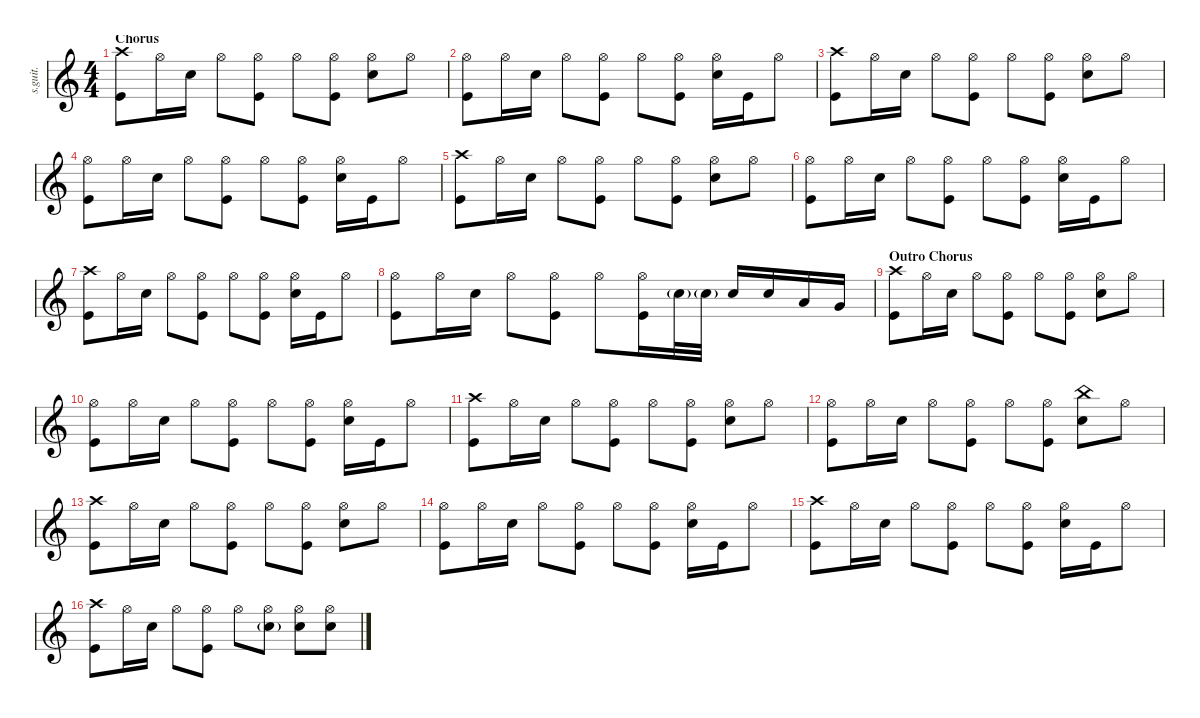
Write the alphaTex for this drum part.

\defaultSystemsLayout 4
\hideDynamics
\bracketExtendMode nobrackets
\track ("Rob Bourdon" "s.guit.") {instrument percussion}
\staff {score}
\articulation defaults
\ts (4 4)
\section ("" "Chorus")
\tempo (110 hide)
\clef g2
\ks c
("Crash high (hit)" "Kick (hit)").8{dy f} "Hi-Hat (open)".16 "Snare (hit) 2".16 "Hi-Hat (open)".8 ("Hi-Hat (open)" "Kick (hit)").8 "Hi-Hat (open)".8 ("Hi-Hat (open)" "Kick (hit)").8 ("Hi-Hat (open)" "Snare (hit) 2").8 "Hi-Hat (open)".8 |
("Hi-Hat (open)" "Kick (hit)").8 "Hi-Hat (open)".16 "Snare (hit) 2".16 "Hi-Hat (open)".8 ("Hi-Hat (open)" "Kick (hit)").8 "Hi-Hat (open)".8 ("Hi-Hat (open)" "Kick (hit)").8 ("Hi-Hat (open)" "Snare (hit) 2").16 "Kick (hit)".16 "Hi-Hat (open)".8 |
("Crash high (hit)" "Kick (hit)").8 "Hi-Hat (open)".16 "Snare (hit) 2".16 "Hi-Hat (open)".8 ("Hi-Hat (open)" "Kick (hit)").8 "Hi-Hat (open)".8 ("Hi-Hat (open)" "Kick (hit)").8 ("Hi-Hat (open)" "Snare (hit) 2").8 "Hi-Hat (open)".8 |
("Hi-Hat (open)" "Kick (hit)").8 "Hi-Hat (open)".16 "Snare (hit) 2".16 "Hi-Hat (open)".8 ("Hi-Hat (open)" "Kick (hit)").8 "Hi-Hat (open)".8 ("Hi-Hat (open)" "Kick (hit)").8 ("Hi-Hat (open)" "Snare (hit) 2").16 "Kick (hit)".16 "Hi-Hat (open)".8 |
("Crash high (hit)" "Kick (hit)").8 "Hi-Hat (open)".16 "Snare (hit) 2".16 "Hi-Hat (open)".8 ("Hi-Hat (open)" "Kick (hit)").8 "Hi-Hat (open)".8 ("Hi-Hat (open)" "Kick (hit)").8 ("Hi-Hat (open)" "Snare (hit) 2").8 "Hi-Hat (open)".8 |
("Hi-Hat (open)" "Kick (hit)").8 "Hi-Hat (open)".16 "Snare (hit) 2".16 "Hi-Hat (open)".8 ("Hi-Hat (open)" "Kick (hit)").8 "Hi-Hat (open)".8 ("Hi-Hat (open)" "Kick (hit)").8 ("Hi-Hat (open)" "Snare (hit) 2").16 "Kick (hit)".16 "Hi-Hat (open)".8 |
("Crash high (hit)" "Kick (hit)").8 "Hi-Hat (open)".16 "Snare (hit) 2".16 "Hi-Hat (open)".8 ("Hi-Hat (open)" "Kick (hit)").8 "Hi-Hat (open)".8 ("Hi-Hat (open)" "Kick (hit)").8 ("Hi-Hat (open)" "Snare (hit) 2").16 "Kick (hit)".16 "Hi-Hat (open)".8 |
("Hi-Hat (open)" "Kick (hit)").8 "Hi-Hat (open)".16 "Snare (hit) 2".16 "Hi-Hat (open)".8 ("Hi-Hat (open)" "Kick (hit)").8 "Hi-Hat (open)".8 ("Hi-Hat (open)" "Kick (hit)").16 "Snare (hit) 2"{g}.32{dy ppp} "Snare (hit) 2"{g}.32 "Snare (hit) 2".16{dy f} "Snare (hit) 2".16 "Low Tom (hit)".16 "Very Low Tom (hit)".16 |
\section ("" "Outro Chorus")
("Crash high (hit)" "Kick (hit)").8 "Hi-Hat (open)".16 "Snare (hit) 2".16 "Hi-Hat (open)".8 ("Hi-Hat (open)" "Kick (hit)").8 "Hi-Hat (open)".8 ("Hi-Hat (open)" "Kick (hit)").8 ("Hi-Hat (open)" "Snare (hit) 2").8 "Hi-Hat (open)".8 |
("Hi-Hat (open)" "Kick (hit)").8 "Hi-Hat (open)".16 "Snare (hit) 2".16 "Hi-Hat (open)".8 ("Hi-Hat (open)" "Kick (hit)").8 "Hi-Hat (open)".8 ("Hi-Hat (open)" "Kick (hit)").8 ("Hi-Hat (open)" "Snare (hit) 2").16 "Kick (hit)".16 "Hi-Hat (open)".8 |
("Crash high (hit)" "Kick (hit)").8 "Hi-Hat (open)".16 "Snare (hit) 2".16 "Hi-Hat (open)".8 ("Hi-Hat (open)" "Kick (hit)").8 "Hi-Hat (open)".8 ("Hi-Hat (open)" "Kick (hit)").8 ("Hi-Hat (open)" "Snare (hit) 2").8 "Hi-Hat (open)".8 |
("Hi-Hat (open)" "Kick (hit)").8 "Hi-Hat (open)".16 "Snare (hit) 2".16 "Hi-Hat (open)".8 ("Hi-Hat (open)" "Kick (hit)").8 "Hi-Hat (open)".8 ("Hi-Hat (open)" "Kick (hit)").8 ("China (hit)" "Snare (hit) 2").8 "Hi-Hat (open)".8 |
("Crash high (hit)" "Kick (hit)").8 "Hi-Hat (open)".16 "Snare (hit) 2".16 "Hi-Hat (open)".8 ("Hi-Hat (open)" "Kick (hit)").8 "Hi-Hat (open)".8 ("Hi-Hat (open)" "Kick (hit)").8 ("Hi-Hat (open)" "Snare (hit) 2").8 "Hi-Hat (open)".8 |
("Hi-Hat (open)" "Kick (hit)").8 "Hi-Hat (open)".16 "Snare (hit) 2".16 "Hi-Hat (open)".8 ("Hi-Hat (open)" "Kick (hit)").8 "Hi-Hat (open)".8 ("Hi-Hat (open)" "Kick (hit)").8 ("Hi-Hat (open)" "Snare (hit) 2").16 "Kick (hit)".16 "Hi-Hat (open)".8 |
("Crash high (hit)" "Kick (hit)").8 "Hi-Hat (open)".16 "Snare (hit) 2".16 "Hi-Hat (open)".8 ("Hi-Hat (open)" "Kick (hit)").8 "Hi-Hat (open)".8 ("Hi-Hat (open)" "Kick (hit)").8 ("Hi-Hat (open)" "Snare (hit) 2").16 "Kick (hit)".16 "Hi-Hat (open)".8 |
("Crash high (hit)" "Kick (hit)").8 "Hi-Hat (open)".16 "Snare (hit) 2".16 "Hi-Hat (open)".8 ("Hi-Hat (open)" "Kick (hit)").8 "Hi-Hat (open)".8 ("Hi-Hat (open)" "Snare (hit) 2"{g}).8 ("Hi-Hat (open)" "Snare (hit) 2").8 ("Hi-Hat (open)" "Snare (hit) 2").8
